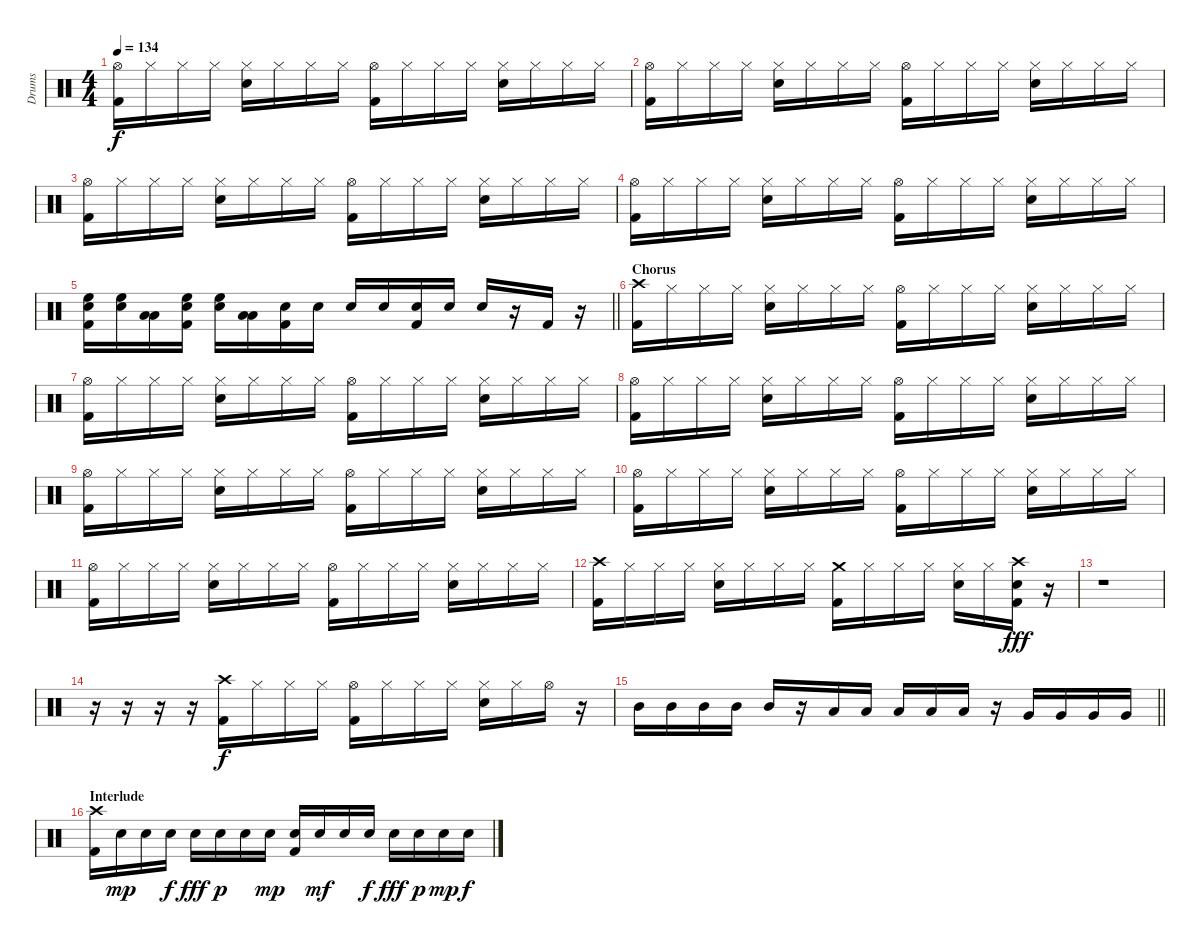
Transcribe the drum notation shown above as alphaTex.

\track ("Drums" "Drums") {instrument percussion}
\staff {score}
\articulation defaults
\ts (4 4)
\tempo 134
\clef neutral
\ks c
("Hi-Hat (open)" "Kick (hit) 2").16{dy f} "Hi-Hat (closed)".16 "Hi-Hat (closed)".16 "Hi-Hat (closed)".16 ("Hi-Hat (closed)" "Snare (hit) 2").16 "Hi-Hat (closed)".16 "Hi-Hat (closed)".16 "Hi-Hat (closed)".16 ("Hi-Hat (open)" "Kick (hit) 2").16 "Hi-Hat (closed)".16 "Hi-Hat (closed)".16 "Hi-Hat (closed)".16 ("Hi-Hat (closed)" "Snare (hit) 2").16 "Hi-Hat (closed)".16 "Hi-Hat (closed)".16 "Hi-Hat (closed)".16 |
("Hi-Hat (open)" "Kick (hit) 2").16 "Hi-Hat (closed)".16 "Hi-Hat (closed)".16 "Hi-Hat (closed)".16 ("Hi-Hat (closed)" "Snare (hit) 2").16 "Hi-Hat (closed)".16 "Hi-Hat (closed)".16 "Hi-Hat (closed)".16 ("Hi-Hat (open)" "Kick (hit) 2").16 "Hi-Hat (closed)".16 "Hi-Hat (closed)".16 "Hi-Hat (closed)".16 ("Hi-Hat (closed)" "Snare (hit) 2").16 "Hi-Hat (closed)".16 "Hi-Hat (closed)".16 "Hi-Hat (closed)".16 |
("Hi-Hat (open)" "Kick (hit) 2").16 "Hi-Hat (closed)".16 "Hi-Hat (closed)".16 "Hi-Hat (closed)".16 ("Hi-Hat (closed)" "Snare (hit) 2").16 "Hi-Hat (closed)".16 "Hi-Hat (closed)".16 "Hi-Hat (closed)".16 ("Hi-Hat (open)" "Kick (hit) 2").16 "Hi-Hat (closed)".16 "Hi-Hat (closed)".16 "Hi-Hat (closed)".16 ("Hi-Hat (closed)" "Snare (hit) 2").16 "Hi-Hat (closed)".16 "Hi-Hat (closed)".16 "Hi-Hat (closed)".16 |
("Hi-Hat (open)" "Kick (hit) 2").16 "Hi-Hat (closed)".16 "Hi-Hat (closed)".16 "Hi-Hat (closed)".16 ("Hi-Hat (closed)" "Snare (hit) 2").16 "Hi-Hat (closed)".16 "Hi-Hat (closed)".16 "Hi-Hat (closed)".16 ("Hi-Hat (open)" "Kick (hit) 2").16 "Hi-Hat (closed)".16 "Hi-Hat (closed)".16 "Hi-Hat (closed)".16 ("Hi-Hat (closed)" "Snare (hit) 2").16 "Hi-Hat (closed)".16 "Hi-Hat (closed)".16 "Hi-Hat (closed)".16 |
\barLineRight lightlight
("Snare (hit) 2" "High Floor Tom (hit)" "Kick (hit) 2").16 ("Snare (hit) 2" "High Floor Tom (hit)").16 ("Low Tom (hit)" "Low Floor Tom (hit)").16 ("Snare (hit) 2" "High Floor Tom (hit)" "Kick (hit) 2").16 ("Snare (hit) 2" "High Floor Tom (hit)").16 ("Low Tom (hit)" "Low Floor Tom (hit)").16 ("Snare (hit) 2" "Kick (hit) 2").16 "Snare (hit) 2".16 "Snare (hit) 2".16 "Snare (hit) 2".16 ("Snare (hit) 2" "Kick (hit) 2").16 "Snare (hit) 2".16 "Snare (hit) 2".16 r.16 "Kick (hit) 2".16 r.16 |
\section ("" "Chorus")
("Crash high (hit)" "Kick (hit) 2").16 "Hi-Hat (closed)".16 "Hi-Hat (closed)".16 "Hi-Hat (closed)".16 ("Hi-Hat (closed)" "Snare (hit) 2").16 "Hi-Hat (closed)".16 "Hi-Hat (closed)".16 "Hi-Hat (closed)".16 ("Hi-Hat (open)" "Kick (hit) 2").16 "Hi-Hat (closed)".16 "Hi-Hat (closed)".16 "Hi-Hat (closed)".16 ("Hi-Hat (closed)" "Snare (hit) 2").16 "Hi-Hat (closed)".16 "Hi-Hat (closed)".16 "Hi-Hat (closed)".16 |
("Hi-Hat (open)" "Kick (hit) 2").16 "Hi-Hat (closed)".16 "Hi-Hat (closed)".16 "Hi-Hat (closed)".16 ("Hi-Hat (closed)" "Snare (hit) 2").16 "Hi-Hat (closed)".16 "Hi-Hat (closed)".16 "Hi-Hat (closed)".16 ("Hi-Hat (open)" "Kick (hit) 2").16 "Hi-Hat (closed)".16 "Hi-Hat (closed)".16 "Hi-Hat (closed)".16 ("Hi-Hat (closed)" "Snare (hit) 2").16 "Hi-Hat (closed)".16 "Hi-Hat (closed)".16 "Hi-Hat (closed)".16 |
("Hi-Hat (open)" "Kick (hit) 2").16 "Hi-Hat (closed)".16 "Hi-Hat (closed)".16 "Hi-Hat (closed)".16 ("Hi-Hat (closed)" "Snare (hit) 2").16 "Hi-Hat (closed)".16 "Hi-Hat (closed)".16 "Hi-Hat (closed)".16 ("Hi-Hat (open)" "Kick (hit) 2").16 "Hi-Hat (closed)".16 "Hi-Hat (closed)".16 "Hi-Hat (closed)".16 ("Hi-Hat (closed)" "Snare (hit) 2").16 "Hi-Hat (closed)".16 "Hi-Hat (closed)".16 "Hi-Hat (closed)".16 |
("Hi-Hat (open)" "Kick (hit) 2").16 "Hi-Hat (closed)".16 "Hi-Hat (closed)".16 "Hi-Hat (closed)".16 ("Hi-Hat (closed)" "Snare (hit) 2").16 "Hi-Hat (closed)".16 "Hi-Hat (closed)".16 "Hi-Hat (closed)".16 ("Hi-Hat (open)" "Kick (hit) 2").16 "Hi-Hat (closed)".16 "Hi-Hat (closed)".16 "Hi-Hat (closed)".16 ("Hi-Hat (closed)" "Snare (hit) 2").16 "Hi-Hat (closed)".16 "Hi-Hat (closed)".16 "Hi-Hat (closed)".16 |
("Hi-Hat (open)" "Kick (hit) 2").16 "Hi-Hat (closed)".16 "Hi-Hat (closed)".16 "Hi-Hat (closed)".16 ("Hi-Hat (closed)" "Snare (hit) 2").16 "Hi-Hat (closed)".16 "Hi-Hat (closed)".16 "Hi-Hat (closed)".16 ("Hi-Hat (open)" "Kick (hit) 2").16 "Hi-Hat (closed)".16 "Hi-Hat (closed)".16 "Hi-Hat (closed)".16 ("Hi-Hat (closed)" "Snare (hit) 2").16 "Hi-Hat (closed)".16 "Hi-Hat (closed)".16 "Hi-Hat (closed)".16 |
("Hi-Hat (open)" "Kick (hit) 2").16 "Hi-Hat (closed)".16 "Hi-Hat (closed)".16 "Hi-Hat (closed)".16 ("Hi-Hat (closed)" "Snare (hit) 2").16 "Hi-Hat (closed)".16 "Hi-Hat (closed)".16 "Hi-Hat (closed)".16 ("Hi-Hat (open)" "Kick (hit) 2").16 "Hi-Hat (closed)".16 "Hi-Hat (closed)".16 "Hi-Hat (closed)".16 ("Hi-Hat (closed)" "Snare (hit) 2").16 "Hi-Hat (closed)".16 "Hi-Hat (closed)".16 "Hi-Hat (closed)".16 |
("Crash high (hit)" "Kick (hit) 2").16 "Hi-Hat (closed)".16 "Hi-Hat (closed)".16 "Hi-Hat (closed)".16 ("Hi-Hat (closed)" "Snare (hit) 2").16 "Hi-Hat (closed)".16 "Hi-Hat (closed)".16 "Hi-Hat (closed)".16 ("Crash medium (hit)" "Kick (hit) 2").16 "Hi-Hat (closed)".16 "Hi-Hat (closed)".16 "Hi-Hat (closed)".16 ("Hi-Hat (closed)" "Snare (hit) 2").16 "Hi-Hat (closed)".16 ("Crash high (hit)" "Snare (hit) 2" "Kick (hit) 2").16{dy fff} r.16 |
r.1 |
r.16 r.16 r.16 r.16 ("Crash high (hit)" "Kick (hit) 2").16{dy f} "Hi-Hat (closed)".16 "Hi-Hat (closed)".16 "Hi-Hat (closed)".16 ("Hi-Hat (open)" "Kick (hit) 2").16 "Hi-Hat (closed)".16 "Hi-Hat (closed)".16 "Hi-Hat (closed)".16 ("Hi-Hat (closed)" "Snare (hit) 2").16 "Hi-Hat (closed)".16 "Hi-Hat (open)".16 r.16 |
\barLineRight lightlight "Mid Tom (hit)".16 "Mid Tom (hit)".16 "Mid Tom (hit)".16 "Mid Tom (hit)".16 "Mid Tom (hit)".16
r.16 "Low Tom (hit)".16 "Low Tom (hit)".16 "Low Tom (hit)".16 "Low Tom (hit)".16 "Low Tom (hit)".16 r.16 "Very Low Tom (hit)".16 "Very Low Tom (hit)".16 "Very Low Tom (hit)".16 "Very Low Tom (hit)".16 |
\section ("" "Interlude")
("Crash high (hit)" "Kick (hit) 2").16 "Snare (hit) 2".16{dy mp} "Snare (hit) 2".16 "Snare (hit) 2".16{dy f} "Snare (hit) 2".16{dy fff} "Snare (hit) 2".16{dy p} "Snare (hit) 2".16 "Snare (hit) 2".16{dy mp} ("Snare (hit) 2" "Kick (hit) 2").16 "Snare (hit) 2".16{dy mf} "Snare (hit) 2".16 "Snare (hit) 2".16{dy f} "Snare (hit) 2".16{dy fff} "Snare (hit) 2".16{dy p} "Snare (hit) 2".16{dy mp} "Snare (hit) 2".16{dy f}
